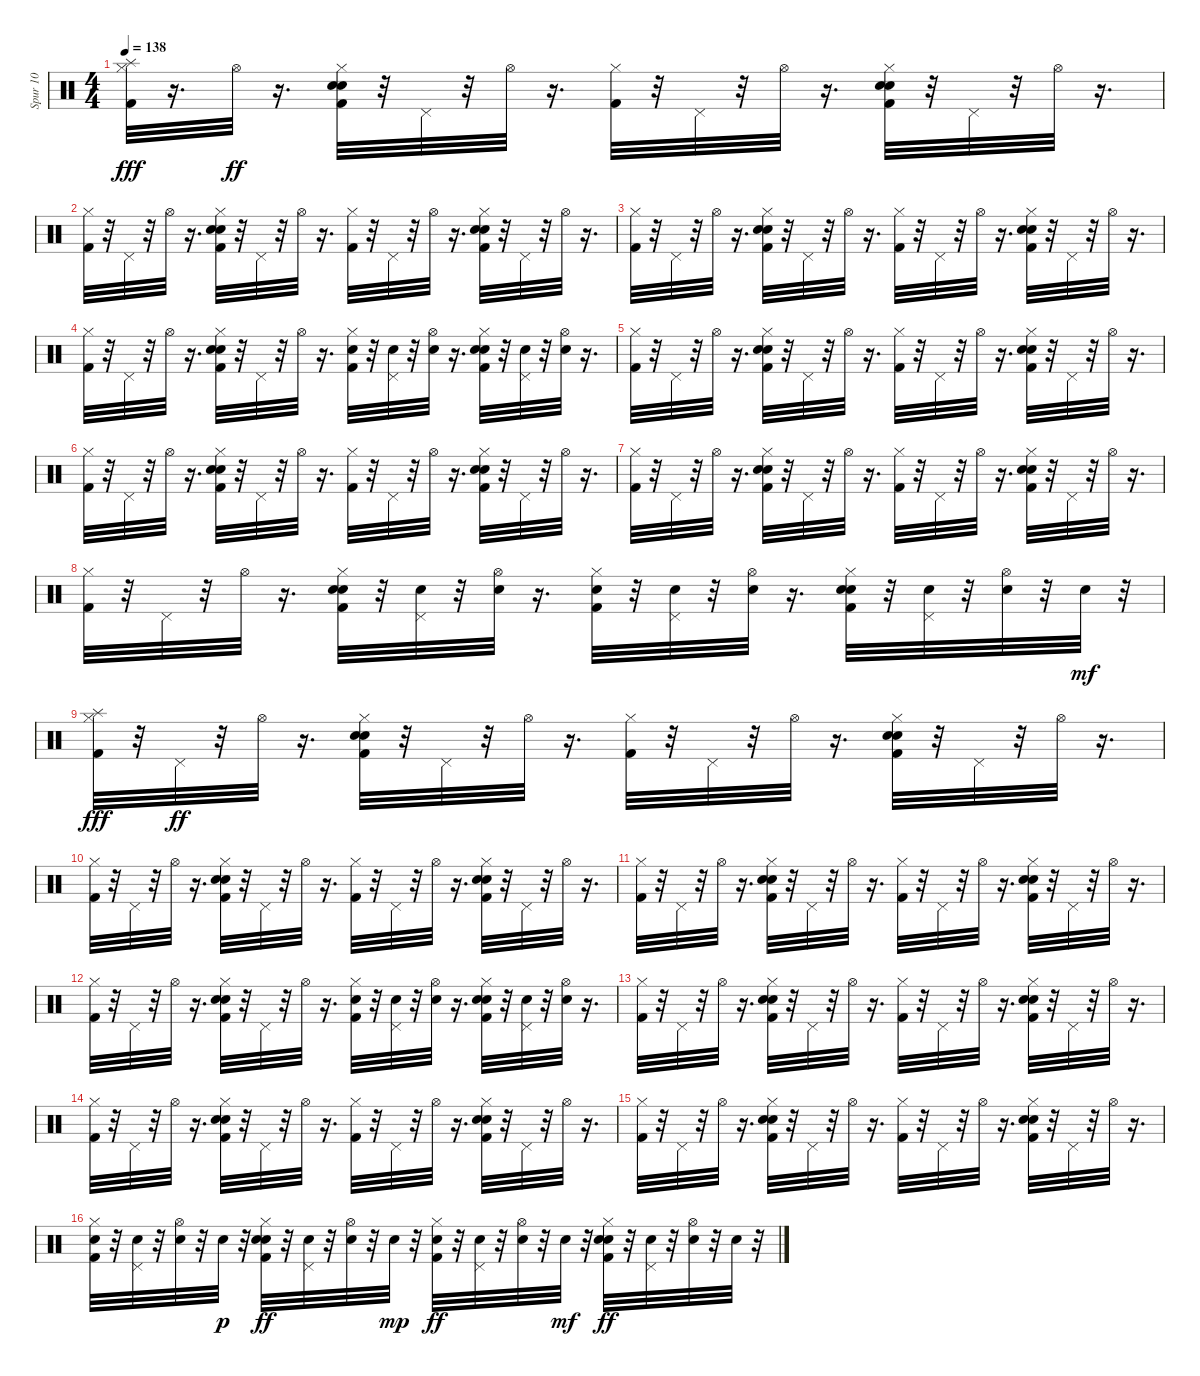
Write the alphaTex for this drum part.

\track ("Spur 10" "Spur 10") {instrument percussion}
\staff {score}
\articulation defaults
\ts (4 4)
\tempo 138
\clef neutral
\ks c
("Kick (hit) 2" "Hi-Hat (closed)" "Splash (hit)").32{dy fff} r.16{d} "Hi-Hat (open)".32{dy ff} r.16{d} ("Kick (hit) 2" "Snare (hit) 2" "Hand Clap (hit)" "Hi-Hat (closed)").32 r.32 "Pedal Hi-Hat (hit)".32 r.32 "Hi-Hat (open)".32 r.16{d} ("Kick (hit) 2" "Hi-Hat (closed)").32 r.32 "Pedal Hi-Hat (hit)".32 r.32 "Hi-Hat (open)".32 r.16{d} ("Kick (hit) 2" "Snare (hit) 2" "Hand Clap (hit)" "Hi-Hat (closed)").32 r.32 "Pedal Hi-Hat (hit)".32 r.32 "Hi-Hat (open)".32 r.16{d} |
("Kick (hit) 2" "Hi-Hat (closed)").32 r.32 "Pedal Hi-Hat (hit)".32 r.32 "Hi-Hat (open)".32 r.16{d} ("Kick (hit) 2" "Snare (hit) 2" "Hand Clap (hit)" "Hi-Hat (closed)").32 r.32 "Pedal Hi-Hat (hit)".32 r.32 "Hi-Hat (open)".32 r.16{d} ("Kick (hit) 2" "Hi-Hat (closed)").32 r.32 "Pedal Hi-Hat (hit)".32 r.32 "Hi-Hat (open)".32 r.16{d} ("Kick (hit) 2" "Snare (hit) 2" "Hand Clap (hit)" "Hi-Hat (closed)").32 r.32 "Pedal Hi-Hat (hit)".32 r.32 "Hi-Hat (open)".32 r.16{d} |
("Kick (hit) 2" "Hi-Hat (closed)").32 r.32 "Pedal Hi-Hat (hit)".32 r.32 "Hi-Hat (open)".32 r.16{d} ("Kick (hit) 2" "Snare (hit) 2" "Hand Clap (hit)" "Hi-Hat (closed)").32 r.32 "Pedal Hi-Hat (hit)".32 r.32 "Hi-Hat (open)".32 r.16{d} ("Kick (hit) 2" "Hi-Hat (closed)").32 r.32 "Pedal Hi-Hat (hit)".32 r.32 "Hi-Hat (open)".32 r.16{d} ("Kick (hit) 2" "Snare (hit) 2" "Hand Clap (hit)" "Hi-Hat (closed)").32 r.32 "Pedal Hi-Hat (hit)".32 r.32 "Hi-Hat (open)".32 r.16{d} |
("Kick (hit) 2" "Hi-Hat (closed)").32 r.32 "Pedal Hi-Hat (hit)".32 r.32 "Hi-Hat (open)".32 r.16{d} ("Kick (hit) 2" "Snare (hit) 2" "Hand Clap (hit)" "Hi-Hat (closed)").32 r.32 "Pedal Hi-Hat (hit)".32 r.32 "Hi-Hat (open)".32 r.16{d} ("Kick (hit) 2" "Snare (hit) 2" "Hi-Hat (closed)").32 r.32 ("Snare (hit) 2" "Pedal Hi-Hat (hit)").32 r.32 ("Snare (hit) 2" "Hi-Hat (open)").32 r.16{d} ("Kick (hit) 2" "Snare (hit) 2" "Hand Clap (hit)" "Hi-Hat (closed)").32 r.32 ("Snare (hit) 2" "Pedal Hi-Hat (hit)").32 r.32 ("Snare (hit) 2" "Hi-Hat (open)").32 r.16{d} |
("Kick (hit) 2" "Hi-Hat (closed)").32 r.32 "Pedal Hi-Hat (hit)".32 r.32 "Hi-Hat (open)".32 r.16{d} ("Kick (hit) 2" "Snare (hit) 2" "Hand Clap (hit)" "Hi-Hat (closed)").32 r.32 "Pedal Hi-Hat (hit)".32 r.32 "Hi-Hat (open)".32 r.16{d} ("Kick (hit) 2" "Hi-Hat (closed)").32 r.32 "Pedal Hi-Hat (hit)".32 r.32 "Hi-Hat (open)".32 r.16{d} ("Kick (hit) 2" "Snare (hit) 2" "Hand Clap (hit)" "Hi-Hat (closed)").32 r.32 "Pedal Hi-Hat (hit)".32 r.32 "Hi-Hat (open)".32 r.16{d} |
("Kick (hit) 2" "Hi-Hat (closed)").32 r.32 "Pedal Hi-Hat (hit)".32 r.32 "Hi-Hat (open)".32 r.16{d} ("Kick (hit) 2" "Snare (hit) 2" "Hand Clap (hit)" "Hi-Hat (closed)").32 r.32 "Pedal Hi-Hat (hit)".32 r.32 "Hi-Hat (open)".32 r.16{d} ("Kick (hit) 2" "Hi-Hat (closed)").32 r.32 "Pedal Hi-Hat (hit)".32 r.32 "Hi-Hat (open)".32 r.16{d} ("Kick (hit) 2" "Snare (hit) 2" "Hand Clap (hit)" "Hi-Hat (closed)").32 r.32 "Pedal Hi-Hat (hit)".32 r.32 "Hi-Hat (open)".32 r.16{d} |
("Kick (hit) 2" "Hi-Hat (closed)").32 r.32 "Pedal Hi-Hat (hit)".32 r.32 "Hi-Hat (open)".32 r.16{d} ("Kick (hit) 2" "Snare (hit) 2" "Hand Clap (hit)" "Hi-Hat (closed)").32 r.32 "Pedal Hi-Hat (hit)".32 r.32 "Hi-Hat (open)".32 r.16{d} ("Kick (hit) 2" "Hi-Hat (closed)").32 r.32 "Pedal Hi-Hat (hit)".32 r.32 "Hi-Hat (open)".32 r.16{d} ("Kick (hit) 2" "Snare (hit) 2" "Hand Clap (hit)" "Hi-Hat (closed)").32 r.32 "Pedal Hi-Hat (hit)".32 r.32 "Hi-Hat (open)".32 r.16{d} |
("Kick (hit) 2" "Hi-Hat (closed)").32 r.32 "Pedal Hi-Hat (hit)".32 r.32 "Hi-Hat (open)".32 r.16{d} ("Kick (hit) 2" "Snare (hit) 2" "Hand Clap (hit)" "Hi-Hat (closed)").32 r.32 ("Snare (hit) 2" "Pedal Hi-Hat (hit)").32 r.32 ("Snare (hit) 2" "Hi-Hat (open)").32 r.16{d} ("Kick (hit) 2" "Snare (hit) 2" "Hi-Hat (closed)").32 r.32 ("Snare (hit) 2" "Pedal Hi-Hat (hit)").32 r.32 ("Snare (hit) 2" "Hi-Hat (open)").32 r.16{d} ("Kick (hit) 2" "Snare (hit) 2" "Hand Clap (hit)" "Hi-Hat (closed)").32 r.32 ("Snare (hit) 2" "Pedal Hi-Hat (hit)").32 r.32 ("Snare (hit) 2" "Hi-Hat (open)").32 r.32 "Snare (hit) 2".32{dy mf} r.32 |
("Kick (hit) 2" "Hi-Hat (closed)" "Splash (hit)").32{dy fff} r.32 "Pedal Hi-Hat (hit)".32{dy ff} r.32 "Hi-Hat (open)".32 r.16{d} ("Kick (hit) 2" "Snare (hit) 2" "Hand Clap (hit)" "Hi-Hat (closed)").32 r.32 "Pedal Hi-Hat (hit)".32 r.32 "Hi-Hat (open)".32 r.16{d} ("Kick (hit) 2" "Hi-Hat (closed)").32 r.32 "Pedal Hi-Hat (hit)".32 r.32 "Hi-Hat (open)".32 r.16{d} ("Kick (hit) 2" "Snare (hit) 2" "Hand Clap (hit)" "Hi-Hat (closed)").32 r.32 "Pedal Hi-Hat (hit)".32 r.32 "Hi-Hat (open)".32 r.16{d} |
("Kick (hit) 2" "Hi-Hat (closed)").32 r.32 "Pedal Hi-Hat (hit)".32 r.32 "Hi-Hat (open)".32 r.16{d} ("Kick (hit) 2" "Snare (hit) 2" "Hand Clap (hit)" "Hi-Hat (closed)").32 r.32 "Pedal Hi-Hat (hit)".32 r.32 "Hi-Hat (open)".32 r.16{d} ("Kick (hit) 2" "Hi-Hat (closed)").32 r.32 "Pedal Hi-Hat (hit)".32 r.32 "Hi-Hat (open)".32 r.16{d} ("Kick (hit) 2" "Snare (hit) 2" "Hand Clap (hit)" "Hi-Hat (closed)").32 r.32 "Pedal Hi-Hat (hit)".32 r.32 "Hi-Hat (open)".32 r.16{d} |
("Kick (hit) 2" "Hi-Hat (closed)").32 r.32 "Pedal Hi-Hat (hit)".32 r.32 "Hi-Hat (open)".32 r.16{d} ("Kick (hit) 2" "Snare (hit) 2" "Hand Clap (hit)" "Hi-Hat (closed)").32 r.32 "Pedal Hi-Hat (hit)".32 r.32 "Hi-Hat (open)".32 r.16{d} ("Kick (hit) 2" "Hi-Hat (closed)").32 r.32 "Pedal Hi-Hat (hit)".32 r.32 "Hi-Hat (open)".32 r.16{d} ("Kick (hit) 2" "Snare (hit) 2" "Hand Clap (hit)" "Hi-Hat (closed)").32 r.32 "Pedal Hi-Hat (hit)".32 r.32 "Hi-Hat (open)".32 r.16{d} |
("Kick (hit) 2" "Hi-Hat (closed)").32 r.32 "Pedal Hi-Hat (hit)".32 r.32 "Hi-Hat (open)".32 r.16{d} ("Kick (hit) 2" "Snare (hit) 2" "Hand Clap (hit)" "Hi-Hat (closed)").32 r.32 "Pedal Hi-Hat (hit)".32 r.32 "Hi-Hat (open)".32 r.16{d} ("Kick (hit) 2" "Snare (hit) 2" "Hi-Hat (closed)").32 r.32 ("Snare (hit) 2" "Pedal Hi-Hat (hit)").32 r.32 ("Snare (hit) 2" "Hi-Hat (open)").32 r.16{d} ("Kick (hit) 2" "Snare (hit) 2" "Hand Clap (hit)" "Hi-Hat (closed)").32 r.32 ("Snare (hit) 2" "Pedal Hi-Hat (hit)").32 r.32 ("Snare (hit) 2" "Hi-Hat (open)").32 r.16{d} |
("Kick (hit) 2" "Hi-Hat (closed)").32 r.32 "Pedal Hi-Hat (hit)".32 r.32 "Hi-Hat (open)".32 r.16{d} ("Kick (hit) 2" "Snare (hit) 2" "Hand Clap (hit)" "Hi-Hat (closed)").32 r.32 "Pedal Hi-Hat (hit)".32 r.32 "Hi-Hat (open)".32 r.16{d} ("Kick (hit) 2" "Hi-Hat (closed)").32 r.32 "Pedal Hi-Hat (hit)".32 r.32 "Hi-Hat (open)".32 r.16{d} ("Kick (hit) 2" "Snare (hit) 2" "Hand Clap (hit)" "Hi-Hat (closed)").32 r.32 "Pedal Hi-Hat (hit)".32 r.32 "Hi-Hat (open)".32 r.16{d} |
("Kick (hit) 2" "Hi-Hat (closed)").32 r.32 "Pedal Hi-Hat (hit)".32 r.32 "Hi-Hat (open)".32 r.16{d} ("Kick (hit) 2" "Snare (hit) 2" "Hand Clap (hit)" "Hi-Hat (closed)").32 r.32 "Pedal Hi-Hat (hit)".32 r.32 "Hi-Hat (open)".32 r.16{d} ("Kick (hit) 2" "Hi-Hat (closed)").32 r.32 "Pedal Hi-Hat (hit)".32 r.32 "Hi-Hat (open)".32 r.16{d} ("Kick (hit) 2" "Snare (hit) 2" "Hand Clap (hit)" "Hi-Hat (closed)").32 r.32 "Pedal Hi-Hat (hit)".32 r.32 "Hi-Hat (open)".32 r.16{d} |
("Kick (hit) 2" "Hi-Hat (closed)").32 r.32 "Pedal Hi-Hat (hit)".32 r.32 "Hi-Hat (open)".32 r.16{d} ("Kick (hit) 2" "Snare (hit) 2" "Hand Clap (hit)" "Hi-Hat (closed)").32 r.32 "Pedal Hi-Hat (hit)".32 r.32 "Hi-Hat (open)".32 r.16{d} ("Kick (hit) 2" "Hi-Hat (closed)").32 r.32 "Pedal Hi-Hat (hit)".32 r.32 "Hi-Hat (open)".32 r.16{d} ("Kick (hit) 2" "Snare (hit) 2" "Hand Clap (hit)" "Hi-Hat (closed)").32 r.32 "Pedal Hi-Hat (hit)".32 r.32 "Hi-Hat (open)".32 r.16{d} |
("Kick (hit) 2" "Snare (hit) 2" "Hi-Hat (closed)").32 r.32 ("Snare (hit) 2" "Pedal Hi-Hat (hit)").32 r.32 ("Snare (hit) 2" "Hi-Hat (open)").32 r.32 "Snare (hit) 2".32{dy p} r.32 ("Kick (hit) 2" "Snare (hit) 2" "Hand Clap (hit)" "Hi-Hat (closed)").32{dy ff} r.32 ("Snare (hit) 2" "Pedal Hi-Hat (hit)").32 r.32 ("Snare (hit) 2" "Hi-Hat (open)").32 r.32 "Snare (hit) 2".32{dy mp} r.32 ("Kick (hit) 2" "Snare (hit) 2" "Hi-Hat (closed)").32{dy ff} r.32 ("Snare (hit) 2" "Pedal Hi-Hat (hit)").32 r.32 ("Snare (hit) 2" "Hi-Hat (open)").32 r.32 "Snare (hit) 2".32{dy mf} r.32 ("Kick (hit) 2" "Snare (hit) 2" "Hand Clap (hit)" "Hi-Hat (closed)").32{dy ff} r.32 ("Snare (hit) 2" "Pedal Hi-Hat (hit)").32 r.32 ("Snare (hit) 2" "Hi-Hat (open)").32 r.32 "Snare (hit) 2".32 r.32
